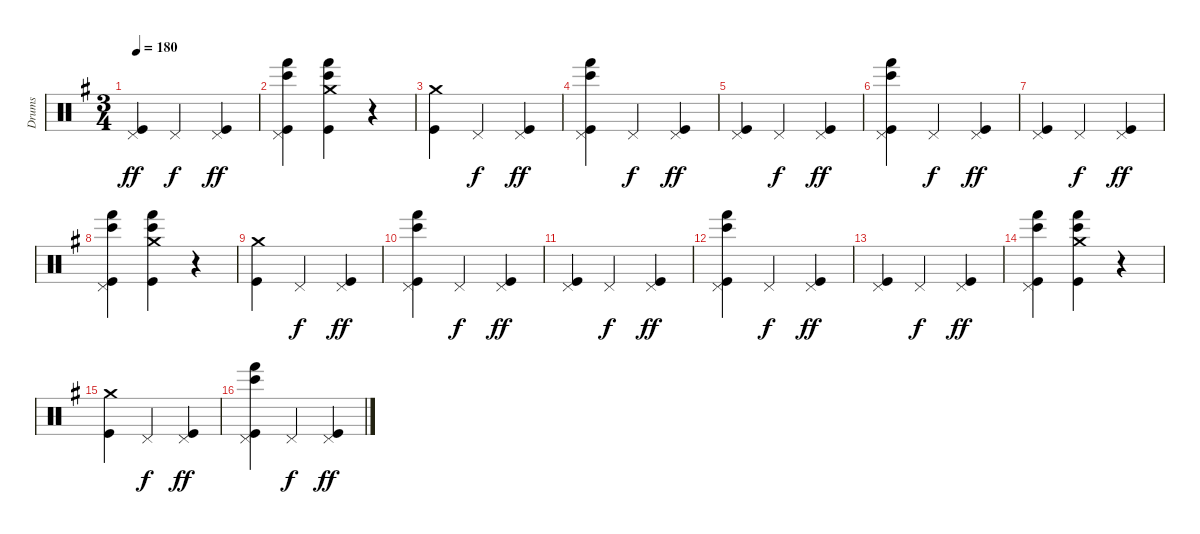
\track ("Drums" "Drums") {instrument percussion bank 24}
\staff {score}
\articulation defaults
\ts (3 4)
\tempo 180
\clef neutral
\ks eminor
("Pedal Hi-Hat (hit)" "Kick (hit)").4{dy ff} "Pedal Hi-Hat (hit)".4{dy f} ("Pedal Hi-Hat (hit)" "Kick (hit)").4{dy ff} |
("Pedal Hi-Hat (hit)" "Bongo High (hit)" "Hand (hit)" "Kick (hit)").4 ("Crash medium (hit)" "Bongo High (hit)" "Hand (hit)" "Kick (hit)").4 r.4 |
("Crash medium (hit)" "Kick (hit)").4 "Pedal Hi-Hat (hit)".4{dy f} ("Pedal Hi-Hat (hit)" "Kick (hit)").4{dy ff} |
("Pedal Hi-Hat (hit)" "Bongo High (hit)" "Hand (hit)" "Kick (hit)").4 "Pedal Hi-Hat (hit)".4{dy f} ("Pedal Hi-Hat (hit)" "Kick (hit)").4{dy ff} |
("Pedal Hi-Hat (hit)" "Kick (hit)").4 "Pedal Hi-Hat (hit)".4{dy f} ("Pedal Hi-Hat (hit)" "Kick (hit)").4{dy ff} |
("Pedal Hi-Hat (hit)" "Bongo High (hit)" "Hand (hit)" "Kick (hit)").4 "Pedal Hi-Hat (hit)".4{dy f} ("Pedal Hi-Hat (hit)" "Kick (hit)").4{dy ff} |
("Pedal Hi-Hat (hit)" "Kick (hit)").4 "Pedal Hi-Hat (hit)".4{dy f} ("Pedal Hi-Hat (hit)" "Kick (hit)").4{dy ff} |
("Pedal Hi-Hat (hit)" "Bongo High (hit)" "Hand (hit)" "Kick (hit)").4 ("Crash medium (hit)" "Bongo High (hit)" "Hand (hit)" "Kick (hit)").4 r.4 |
("Crash medium (hit)" "Kick (hit)").4 "Pedal Hi-Hat (hit)".4{dy f} ("Pedal Hi-Hat (hit)" "Kick (hit)").4{dy ff} |
("Pedal Hi-Hat (hit)" "Bongo High (hit)" "Hand (hit)" "Kick (hit)").4 "Pedal Hi-Hat (hit)".4{dy f} ("Pedal Hi-Hat (hit)" "Kick (hit)").4{dy ff} |
("Pedal Hi-Hat (hit)" "Kick (hit)").4 "Pedal Hi-Hat (hit)".4{dy f} ("Pedal Hi-Hat (hit)" "Kick (hit)").4{dy ff} |
("Pedal Hi-Hat (hit)" "Bongo High (hit)" "Hand (hit)" "Kick (hit)").4 "Pedal Hi-Hat (hit)".4{dy f} ("Pedal Hi-Hat (hit)" "Kick (hit)").4{dy ff} |
("Pedal Hi-Hat (hit)" "Kick (hit)").4 "Pedal Hi-Hat (hit)".4{dy f} ("Pedal Hi-Hat (hit)" "Kick (hit)").4{dy ff} |
("Pedal Hi-Hat (hit)" "Bongo High (hit)" "Hand (hit)" "Kick (hit)").4 ("Crash medium (hit)" "Bongo High (hit)" "Hand (hit)" "Kick (hit)").4 r.4 |
("Crash medium (hit)" "Kick (hit)").4 "Pedal Hi-Hat (hit)".4{dy f} ("Pedal Hi-Hat (hit)" "Kick (hit)").4{dy ff} |
("Pedal Hi-Hat (hit)" "Bongo High (hit)" "Hand (hit)" "Kick (hit)").4 "Pedal Hi-Hat (hit)".4{dy f} ("Pedal Hi-Hat (hit)" "Kick (hit)").4{dy ff}
